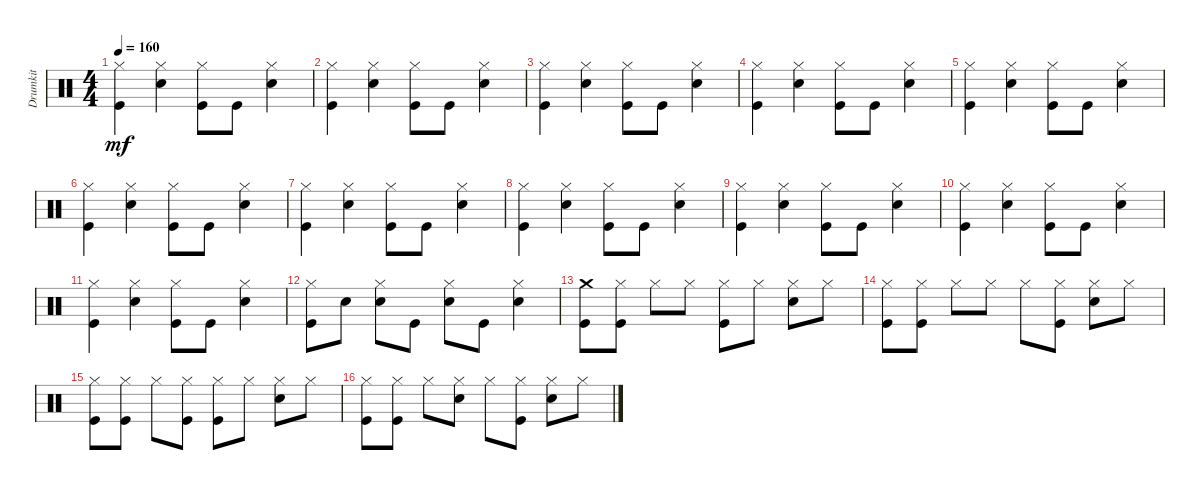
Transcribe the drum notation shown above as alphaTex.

\track ("Drumkit" "Drumkit") {instrument percussion}
\staff {score}
\articulation defaults
\ts (4 4)
\tempo 160
\clef neutral
\ks c
("Kick (hit)" "Hi-Hat (closed)").4{dy mf} ("Hi-Hat (closed)" "Snare (hit) 2").4 ("Kick (hit)" "Hi-Hat (closed)").8 "Kick (hit)".8 ("Snare (hit) 2" "Hi-Hat (closed)").4 |
("Kick (hit)" "Hi-Hat (closed)").4 ("Hi-Hat (closed)" "Snare (hit) 2").4 ("Kick (hit)" "Hi-Hat (closed)").8 "Kick (hit)".8 ("Snare (hit) 2" "Hi-Hat (closed)").4 |
("Kick (hit)" "Hi-Hat (closed)").4 ("Hi-Hat (closed)" "Snare (hit) 2").4 ("Kick (hit)" "Hi-Hat (closed)").8 "Kick (hit)".8 ("Snare (hit) 2" "Hi-Hat (closed)").4 |
("Kick (hit)" "Hi-Hat (closed)").4 ("Hi-Hat (closed)" "Snare (hit) 2").4 ("Kick (hit)" "Hi-Hat (closed)").8 "Kick (hit)".8 ("Snare (hit) 2" "Hi-Hat (closed)").4 |
("Kick (hit)" "Hi-Hat (closed)").4 ("Hi-Hat (closed)" "Snare (hit) 2").4 ("Kick (hit)" "Hi-Hat (closed)").8 "Kick (hit)".8 ("Snare (hit) 2" "Hi-Hat (closed)").4 |
("Kick (hit)" "Hi-Hat (closed)").4 ("Hi-Hat (closed)" "Snare (hit) 2").4 ("Kick (hit)" "Hi-Hat (closed)").8 "Kick (hit)".8 ("Snare (hit) 2" "Hi-Hat (closed)").4 |
("Kick (hit)" "Hi-Hat (closed)").4 ("Hi-Hat (closed)" "Snare (hit) 2").4 ("Kick (hit)" "Hi-Hat (closed)").8 "Kick (hit)".8 ("Snare (hit) 2" "Hi-Hat (closed)").4 |
("Kick (hit)" "Hi-Hat (closed)").4 ("Hi-Hat (closed)" "Snare (hit) 2").4 ("Kick (hit)" "Hi-Hat (closed)").8 "Kick (hit)".8 ("Snare (hit) 2" "Hi-Hat (closed)").4 |
("Kick (hit)" "Hi-Hat (closed)").4 ("Hi-Hat (closed)" "Snare (hit) 2").4 ("Kick (hit)" "Hi-Hat (closed)").8 "Kick (hit)".8 ("Snare (hit) 2" "Hi-Hat (closed)").4 |
("Kick (hit)" "Hi-Hat (closed)").4 ("Hi-Hat (closed)" "Snare (hit) 2").4 ("Kick (hit)" "Hi-Hat (closed)").8 "Kick (hit)".8 ("Snare (hit) 2" "Hi-Hat (closed)").4 |
("Kick (hit)" "Hi-Hat (closed)").4 ("Hi-Hat (closed)" "Snare (hit) 2").4 ("Kick (hit)" "Hi-Hat (closed)").8 "Kick (hit)".8 ("Snare (hit) 2" "Hi-Hat (closed)").4 |
("Kick (hit)" "Hi-Hat (closed)").8 "Snare (hit) 2".8 ("Snare (hit) 2" "Hi-Hat (closed)").8 "Kick (hit)".8 ("Snare (hit) 2" "Hi-Hat (closed)").8 "Kick (hit)".8 ("Snare (hit) 2" "Hi-Hat (closed)").4 |
("Kick (hit)" "Crash medium (hit)").8 ("Kick (hit)" "Hi-Hat (closed)").8 "Hi-Hat (closed)".8 "Hi-Hat (closed)".8 ("Kick (hit)" "Hi-Hat (closed)").8 "Hi-Hat (closed)".8 ("Snare (hit) 2" "Hi-Hat (closed)").8 "Hi-Hat (closed)".8 |
("Kick (hit)" "Hi-Hat (closed)").8 ("Kick (hit)" "Hi-Hat (closed)").8 "Hi-Hat (closed)".8 "Hi-Hat (closed)".8 "Hi-Hat (closed)".8 ("Hi-Hat (closed)" "Kick (hit)").8 ("Snare (hit) 2" "Hi-Hat (closed)").8 "Hi-Hat (closed)".8 |
("Kick (hit)" "Hi-Hat (closed)").8 ("Kick (hit)" "Hi-Hat (closed)").8 "Hi-Hat (closed)".8 ("Hi-Hat (closed)" "Kick (hit)").8 ("Hi-Hat (closed)" "Kick (hit)").8 "Hi-Hat (closed)".8 ("Snare (hit) 2" "Hi-Hat (closed)").8 "Hi-Hat (closed)".8 |
("Kick (hit)" "Hi-Hat (closed)").8 ("Kick (hit)" "Hi-Hat (closed)").8 "Hi-Hat (closed)".8 ("Hi-Hat (closed)" "Snare (hit) 2").8 "Hi-Hat (closed)".8 ("Hi-Hat (closed)" "Kick (hit)").8 ("Snare (hit) 2" "Hi-Hat (closed)").8 "Hi-Hat (closed)".8
